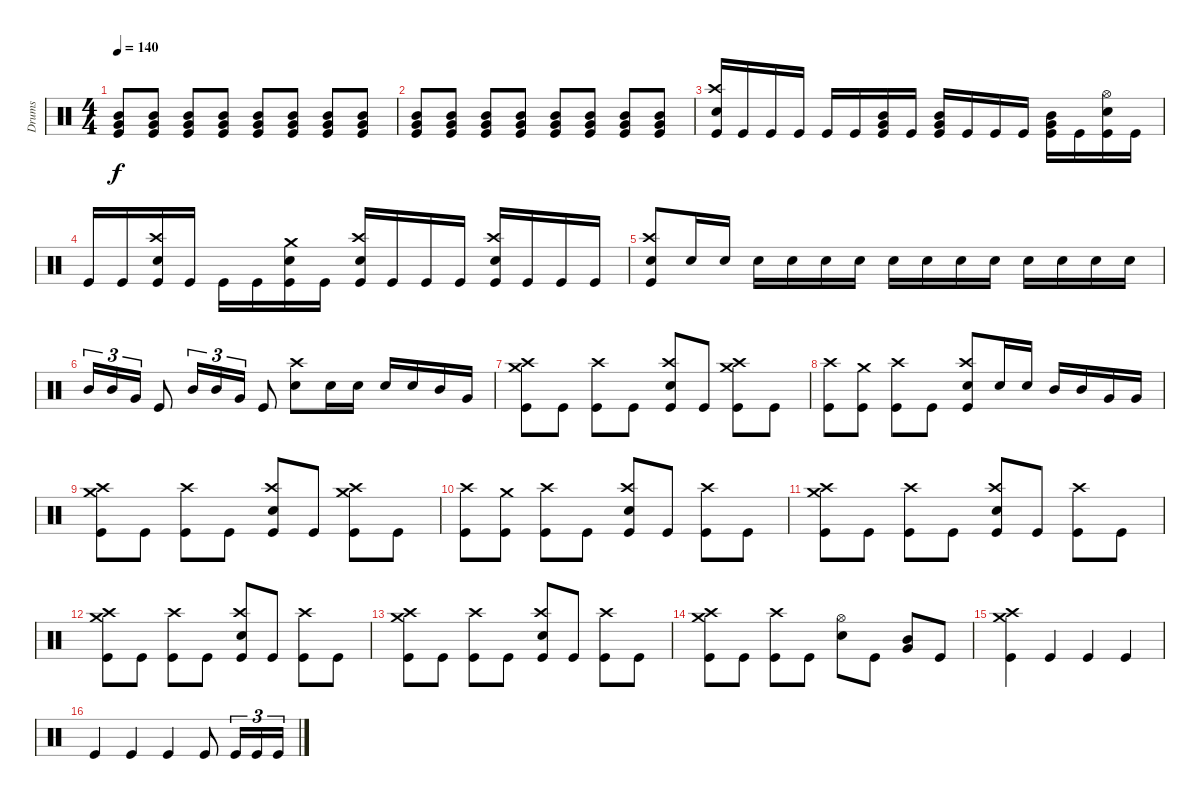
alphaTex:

\track ("Drums" "Drums") {instrument percussion}
\staff {score}
\articulation defaults
\ts (4 4)
\tempo 140
\clef neutral
\ks c
("Very Low Tom (hit)" "Mid Tom (hit)" "Kick (hit)").8{dy f} ("Very Low Tom (hit)" "Mid Tom (hit)" "Kick (hit)").8 ("Very Low Tom (hit)" "Mid Tom (hit)" "Kick (hit)").8 ("Very Low Tom (hit)" "Mid Tom (hit)" "Kick (hit)").8 ("Very Low Tom (hit)" "Mid Tom (hit)" "Kick (hit)").8 ("Very Low Tom (hit)" "Mid Tom (hit)" "Kick (hit)").8 ("Very Low Tom (hit)" "Mid Tom (hit)" "Kick (hit)").8 ("Very Low Tom (hit)" "Mid Tom (hit)" "Kick (hit)").8 |
("Very Low Tom (hit)" "Mid Tom (hit)" "Kick (hit)").8 ("Very Low Tom (hit)" "Mid Tom (hit)" "Kick (hit)").8 ("Very Low Tom (hit)" "Mid Tom (hit)" "Kick (hit)").8 ("Very Low Tom (hit)" "Mid Tom (hit)" "Kick (hit)").8 ("Very Low Tom (hit)" "Mid Tom (hit)" "Kick (hit)").8 ("Very Low Tom (hit)" "Mid Tom (hit)" "Kick (hit)").8 ("Very Low Tom (hit)" "Mid Tom (hit)" "Kick (hit)").8 ("Very Low Tom (hit)" "Mid Tom (hit)" "Kick (hit)").8 |
("Crash high (hit)" "Electric Snare (hit)" "Kick (hit)").16 "Kick (hit)".16 "Kick (hit)".16 "Kick (hit)".16 "Kick (hit)".16 "Kick (hit)".16 ("Mid Tom (hit)" "Very Low Tom (hit)" "Kick (hit)").16 "Kick (hit)".16 ("Mid Tom (hit)" "Very Low Tom (hit)" "Kick (hit)").16 "Kick (hit)".16 "Kick (hit)".16 "Kick (hit)".16 ("Mid Tom (hit)" "Very Low Tom (hit)" "Kick (hit)").16 "Kick (hit)".16 ("Hi-Hat (open)" "Electric Snare (hit)" "Kick (hit)").16 "Kick (hit)".16 |
"Kick (hit)".16 "Kick (hit)".16 ("Crash high (hit)" "Electric Snare (hit)" "Kick (hit)").16 "Kick (hit)".16 "Kick (hit)".16 "Kick (hit)".16 ("Crash medium (hit)" "Electric Snare (hit)" "Kick (hit)").16 "Kick (hit)".16 ("Crash high (hit)" "Electric Snare (hit)" "Kick (hit)").16 "Kick (hit)".16 "Kick (hit)".16 "Kick (hit)".16 ("Crash high (hit)" "Electric Snare (hit)" "Kick (hit)").16 "Kick (hit)".16 "Kick (hit)".16 "Kick (hit)".16 |
("Crash high (hit)" "Electric Snare (hit)" "Kick (hit)").8 "Electric Snare (hit)".16 "Electric Snare (hit)".16 "Electric Snare (hit)".16 "Electric Snare (hit)".16 "Electric Snare (hit)".16 "Electric Snare (hit)".16 "Electric Snare (hit)".16 "Electric Snare (hit)".16 "Electric Snare (hit)".16 "Electric Snare (hit)".16 "Electric Snare (hit)".16 "Electric Snare (hit)".16 "Electric Snare (hit)".16 "Electric Snare (hit)".16 |
"Mid Tom (hit)".16{tu (3 2)} "Mid Tom (hit)".16{tu (3 2)} "Very Low Tom (hit)".16{tu (3 2)} "Kick (hit)".8 "Mid Tom (hit)".16{tu (3 2)} "Mid Tom (hit)".16{tu (3 2)} "Very Low Tom (hit)".16{tu (3 2)} "Kick (hit)".8 ("Crash high (hit)" "Electric Snare (hit)").8 "Electric Snare (hit)".16 "Electric Snare (hit)".16 "Electric Snare (hit)".16 "Electric Snare (hit)".16 "Mid Tom (hit)".16 "Very Low Tom (hit)".16 |
("Crash high (hit)" "Crash medium (hit)" "Kick (hit)").8 "Kick (hit)".8 ("Crash high (hit)" "Kick (hit)").8 "Kick (hit)".8 ("Crash high (hit)" "Electric Snare (hit)" "Kick (hit)").8 "Kick (hit)".8 ("Crash high (hit)" "Crash medium (hit)" "Kick (hit)").8 "Kick (hit)".8 |
("Crash high (hit)" "Kick (hit)").8 ("Crash medium (hit)" "Kick (hit)").8 ("Crash high (hit)" "Kick (hit)").8 "Kick (hit)".8 ("Crash high (hit)" "Electric Snare (hit)" "Kick (hit)").8 "Electric Snare (hit)".16 "Electric Snare (hit)".16 "Mid Tom (hit)".16 "Mid Tom (hit)".16 "Very Low Tom (hit)".16 "Very Low Tom (hit)".16 |
("Crash high (hit)" "Crash medium (hit)" "Kick (hit)").8 "Kick (hit)".8 ("Crash high (hit)" "Kick (hit)").8 "Kick (hit)".8 ("Crash high (hit)" "Electric Snare (hit)" "Kick (hit)").8 "Kick (hit)".8 ("Crash high (hit)" "Crash medium (hit)" "Kick (hit)").8 "Kick (hit)".8 |
("Crash high (hit)" "Kick (hit)").8 ("Crash medium (hit)" "Kick (hit)").8 ("Crash high (hit)" "Kick (hit)").8 "Kick (hit)".8 ("Crash high (hit)" "Electric Snare (hit)" "Kick (hit)").8 "Kick (hit)".8 ("Crash high (hit)" "Kick (hit)").8 "Kick (hit)".8 |
("Crash high (hit)" "Crash medium (hit)" "Kick (hit)").8 "Kick (hit)".8 ("Crash high (hit)" "Kick (hit)").8 "Kick (hit)".8 ("Crash high (hit)" "Electric Snare (hit)" "Kick (hit)").8 "Kick (hit)".8 ("Crash high (hit)" "Kick (hit)").8 "Kick (hit)".8 |
("Crash high (hit)" "Crash medium (hit)" "Kick (hit)").8 "Kick (hit)".8 ("Crash high (hit)" "Kick (hit)").8 "Kick (hit)".8 ("Electric Snare (hit)" "Crash high (hit)" "Kick (hit)").8 "Kick (hit)".8 ("Crash high (hit)" "Kick (hit)").8 "Kick (hit)".8 |
("Crash high (hit)" "Crash medium (hit)" "Kick (hit)").8 "Kick (hit)".8 ("Crash high (hit)" "Kick (hit)").8 "Kick (hit)".8 ("Crash high (hit)" "Electric Snare (hit)" "Kick (hit)").8 "Kick (hit)".8 ("Crash high (hit)" "Kick (hit)").8 "Kick (hit)".8 |
("Crash high (hit)" "Crash medium (hit)" "Kick (hit)").8 "Kick (hit)".8 ("Crash high (hit)" "Kick (hit)").8 "Kick (hit)".8 ("Electric Snare (hit)" "Hi-Hat (open)").8 "Kick (hit)".8 ("Mid Tom (hit)" "Very Low Tom (hit)").8 "Kick (hit)".8 |
("Crash medium (hit)" "Crash high (hit)" "Kick (hit)").4 "Kick (hit)".4 "Kick (hit)".4 "Kick (hit)".4 |
"Kick (hit)".4 "Kick (hit)".4 "Kick (hit)".4 "Kick (hit)".8 "Kick (hit)".16{tu (3 2)} "Kick (hit)".16{tu (3 2)} "Kick (hit)".16{tu (3 2)}
